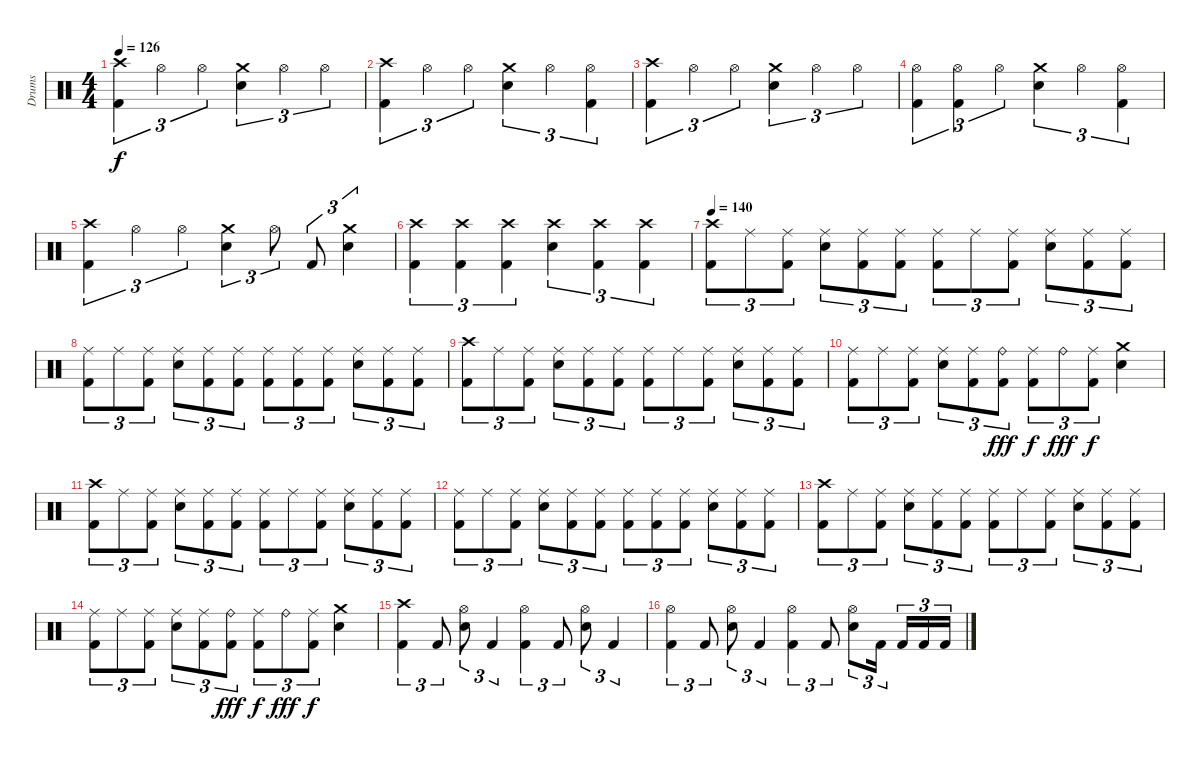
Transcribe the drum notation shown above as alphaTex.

\track ("Drums" "Drums") {instrument percussion}
\staff {score}
\articulation defaults
\ts (4 4)
\tempo 126
\clef neutral
\ks c
("Crash high (hit)" "Kick (hit) 2").4{tu (3 2) dy f} "Hi-Hat (open)".4{tu (3 2)} "Hi-Hat (open)".4{tu (3 2)} ("Crash medium (hit)" "Electric Snare (hit)").4{tu (3 2)} "Hi-Hat (open)".4{tu (3 2)} "Hi-Hat (open)".4{tu (3 2)} |
("Crash high (hit)" "Kick (hit) 2").4{tu (3 2)} "Hi-Hat (open)".4{tu (3 2)} "Hi-Hat (open)".4{tu (3 2)} ("Crash medium (hit)" "Electric Snare (hit)").4{tu (3 2)} "Hi-Hat (open)".4{tu (3 2)} ("Hi-Hat (open)" "Kick (hit) 2").4{tu (3 2)} |
("Crash high (hit)" "Kick (hit) 2").4{tu (3 2)} "Hi-Hat (open)".4{tu (3 2)} "Hi-Hat (open)".4{tu (3 2)} ("Crash medium (hit)" "Electric Snare (hit)").4{tu (3 2)} "Hi-Hat (open)".4{tu (3 2)} "Hi-Hat (open)".4{tu (3 2)} |
("Hi-Hat (open)" "Kick (hit) 2").4{tu (3 2)} ("Hi-Hat (open)" "Kick (hit) 2").4{tu (3 2)} "Hi-Hat (open)".4{tu (3 2)} ("Crash medium (hit)" "Electric Snare (hit)").4{tu (3 2)} "Hi-Hat (open)".4{tu (3 2)} ("Hi-Hat (open)" "Kick (hit) 2").4{tu (3 2)} |
("Crash high (hit)" "Kick (hit) 2").4{tu (3 2)} "Hi-Hat (open)".4{tu (3 2)} "Hi-Hat (open)".4{tu (3 2)} ("Crash medium (hit)" "Electric Snare (hit)").4{tu (3 2)} "Hi-Hat (open)".8{tu (3 2)} "Kick (hit) 2".8{tu (3 2)} ("Crash medium (hit)" "Electric Snare (hit)").4{tu (3 2)} |
("Crash high (hit)" "Kick (hit) 2").4{tu (3 2)} ("Crash high (hit)" "Kick (hit) 2").4{tu (3 2)} ("Crash high (hit)" "Kick (hit) 2").4{tu (3 2)} ("Crash high (hit)" "Electric Snare (hit)").4{tu (3 2)} ("Crash high (hit)" "Kick (hit) 2").4{tu (3 2)} ("Crash high (hit)" "Kick (hit) 2").4{tu (3 2)} |
\tempo 140
("Crash high (hit)" "Kick (hit) 2").8{tu (3 2)} "Ride (middle)".8{tu (3 2)} ("Ride (middle)" "Kick (hit) 2").8{tu (3 2)} ("Ride (middle)" "Electric Snare (hit)").8{tu (3 2)} ("Ride (middle)" "Kick (hit) 2").8{tu (3 2)} ("Ride (middle)" "Kick (hit) 2").8{tu (3 2)} ("Ride (middle)" "Kick (hit) 2").8{tu (3 2)} "Ride (middle)".8{tu (3 2)} ("Ride (middle)" "Kick (hit) 2").8{tu (3 2)} ("Ride (middle)" "Electric Snare (hit)").8{tu (3 2)} ("Ride (middle)" "Kick (hit) 2").8{tu (3 2)} ("Ride (middle)" "Kick (hit) 2").8{tu (3 2)} |
("Ride (middle)" "Kick (hit) 2").8{tu (3 2)} "Ride (middle)".8{tu (3 2)} ("Ride (middle)" "Kick (hit) 2").8{tu (3 2)} ("Ride (middle)" "Electric Snare (hit)").8{tu (3 2)} ("Ride (middle)" "Kick (hit) 2").8{tu (3 2)} ("Ride (middle)" "Kick (hit) 2").8{tu (3 2)} ("Ride (middle)" "Kick (hit) 2").8{tu (3 2)} ("Ride (middle)" "Kick (hit) 2").8{tu (3 2)} ("Ride (middle)" "Kick (hit) 2").8{tu (3 2)} ("Ride (middle)" "Electric Snare (hit)").8{tu (3 2)} ("Ride (middle)" "Kick (hit) 2").8{tu (3 2)} ("Ride (middle)" "Kick (hit) 2").8{tu (3 2)} |
("Crash high (hit)" "Kick (hit) 2").8{tu (3 2)} "Ride (middle)".8{tu (3 2)} ("Ride (middle)" "Kick (hit) 2").8{tu (3 2)} ("Ride (middle)" "Electric Snare (hit)").8{tu (3 2)} ("Ride (middle)" "Kick (hit) 2").8{tu (3 2)} ("Ride (middle)" "Kick (hit) 2").8{tu (3 2)} ("Ride (middle)" "Kick (hit) 2").8{tu (3 2)} "Ride (middle)".8{tu (3 2)} ("Ride (middle)" "Kick (hit) 2").8{tu (3 2)} ("Ride (middle)" "Electric Snare (hit)").8{tu (3 2)} ("Ride (middle)" "Kick (hit) 2").8{tu (3 2)} ("Ride (middle)" "Kick (hit) 2").8{tu (3 2)} |
("Ride (middle)" "Kick (hit) 2").8{tu (3 2)} "Ride (middle)".8{tu (3 2)} ("Ride (middle)" "Kick (hit) 2").8{tu (3 2)} ("Ride (middle)" "Electric Snare (hit)").8{tu (3 2)} ("Ride (middle)" "Kick (hit) 2").8{tu (3 2)} ("Ride (bell)" "Kick (hit) 2").8{tu (3 2) dy fff} ("Ride (middle)" "Kick (hit) 2").8{tu (3 2) dy f} "Ride (bell)".8{tu (3 2) dy fff} ("Ride (middle)" "Kick (hit) 2").8{tu (3 2) dy f} ("Crash medium (hit)" "Electric Snare (hit)").4 |
("Crash high (hit)" "Kick (hit) 2").8{tu (3 2)} "Ride (middle)".8{tu (3 2)} ("Ride (middle)" "Kick (hit) 2").8{tu (3 2)} ("Ride (middle)" "Electric Snare (hit)").8{tu (3 2)} ("Ride (middle)" "Kick (hit) 2").8{tu (3 2)} ("Ride (middle)" "Kick (hit) 2").8{tu (3 2)} ("Ride (middle)" "Kick (hit) 2").8{tu (3 2)} "Ride (middle)".8{tu (3 2)} ("Ride (middle)" "Kick (hit) 2").8{tu (3 2)} ("Ride (middle)" "Electric Snare (hit)").8{tu (3 2)} ("Ride (middle)" "Kick (hit) 2").8{tu (3 2)} ("Ride (middle)" "Kick (hit) 2").8{tu (3 2)} |
("Ride (middle)" "Kick (hit) 2").8{tu (3 2)} "Ride (middle)".8{tu (3 2)} ("Ride (middle)" "Kick (hit) 2").8{tu (3 2)} ("Ride (middle)" "Electric Snare (hit)").8{tu (3 2)} ("Ride (middle)" "Kick (hit) 2").8{tu (3 2)} ("Ride (middle)" "Kick (hit) 2").8{tu (3 2)} ("Ride (middle)" "Kick (hit) 2").8{tu (3 2)} ("Ride (middle)" "Kick (hit) 2").8{tu (3 2)} ("Ride (middle)" "Kick (hit) 2").8{tu (3 2)} ("Ride (middle)" "Electric Snare (hit)").8{tu (3 2)} ("Ride (middle)" "Kick (hit) 2").8{tu (3 2)} ("Ride (middle)" "Kick (hit) 2").8{tu (3 2)} |
("Crash high (hit)" "Kick (hit) 2").8{tu (3 2)} "Ride (middle)".8{tu (3 2)} ("Ride (middle)" "Kick (hit) 2").8{tu (3 2)} ("Ride (middle)" "Electric Snare (hit)").8{tu (3 2)} ("Ride (middle)" "Kick (hit) 2").8{tu (3 2)} ("Ride (middle)" "Kick (hit) 2").8{tu (3 2)} ("Ride (middle)" "Kick (hit) 2").8{tu (3 2)} "Ride (middle)".8{tu (3 2)} ("Ride (middle)" "Kick (hit) 2").8{tu (3 2)} ("Ride (middle)" "Electric Snare (hit)").8{tu (3 2)} ("Ride (middle)" "Kick (hit) 2").8{tu (3 2)} ("Ride (middle)" "Kick (hit) 2").8{tu (3 2)} |
("Ride (middle)" "Kick (hit) 2").8{tu (3 2)} "Ride (middle)".8{tu (3 2)} ("Ride (middle)" "Kick (hit) 2").8{tu (3 2)} ("Ride (middle)" "Electric Snare (hit)").8{tu (3 2)} ("Ride (middle)" "Kick (hit) 2").8{tu (3 2)} ("Ride (bell)" "Kick (hit) 2").8{tu (3 2) dy fff} ("Ride (middle)" "Kick (hit) 2").8{tu (3 2) dy f} "Ride (bell)".8{tu (3 2) dy fff} ("Ride (middle)" "Kick (hit) 2").8{tu (3 2) dy f} ("Crash medium (hit)" "Electric Snare (hit)").4 |
("Crash high (hit)" "Kick (hit) 2").4{tu (3 2)} "Kick (hit) 2".8{tu (3 2)} ("Hi-Hat (open)" "Electric Snare (hit)").8{tu (3 2)} "Kick (hit) 2".4{tu (3 2)} ("Hi-Hat (open)" "Kick (hit) 2").4{tu (3 2)} "Kick (hit) 2".8{tu (3 2)} ("Hi-Hat (open)" "Electric Snare (hit)").8{tu (3 2)} "Kick (hit) 2".4{tu (3 2)} |
("Hi-Hat (open)" "Kick (hit) 2").4{tu (3 2)} "Kick (hit) 2".8{tu (3 2)} ("Hi-Hat (open)" "Electric Snare (hit)").8{tu (3 2)} "Kick (hit) 2".4{tu (3 2)} ("Hi-Hat (open)" "Kick (hit) 2").4{tu (3 2)} "Kick (hit) 2".8{tu (3 2)} ("Hi-Hat (open)" "Electric Snare (hit)").8{tu (3 2)} "Kick (hit) 2".16{tu (3 2)} "Kick (hit) 2".16{tu (3 2)} "Kick (hit) 2".16{tu (3 2)} "Kick (hit) 2".16{tu (3 2)}
